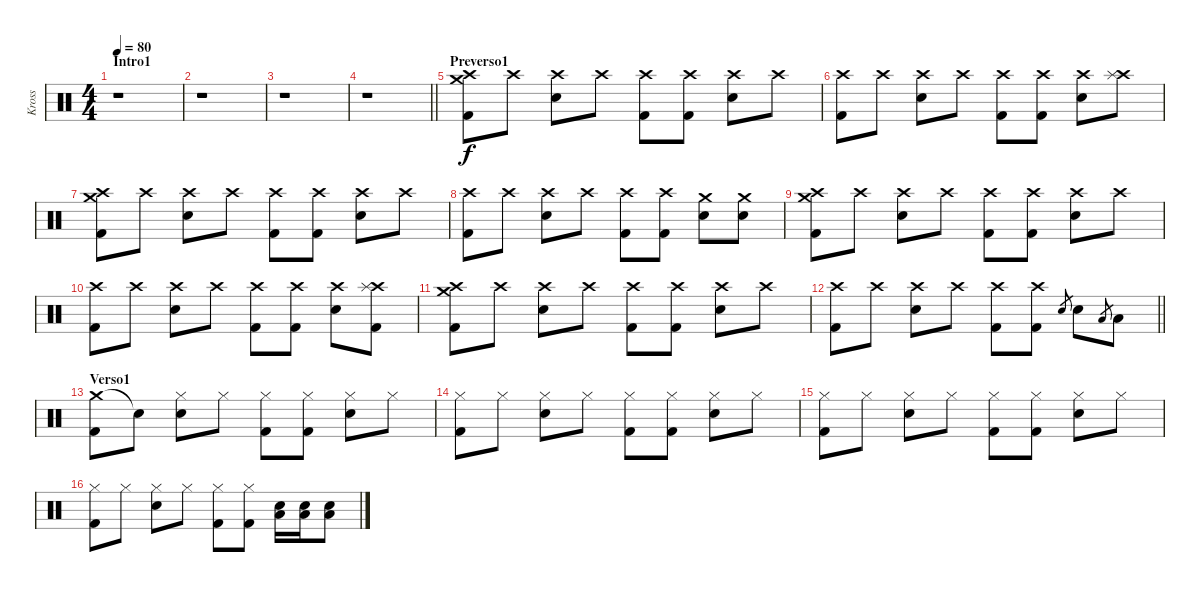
\track ("Kross" "Kross") {instrument percussion}
\staff {score}
\articulation defaults
\ts (4 4)
\section ("" "Intro1")
\tempo 80
\clef neutral
\ks c
r.1{dy f} |
r.1 |
r.1 |
\barLineRight lightlight
r.1 |
\section ("" "Preverso1")
("Crash high (hit)" "Crash medium (hit)" "Kick (hit) 2").8 "Crash high (hit)".8 ("Crash high (hit)" "Snare (hit) 2").8 "Crash high (hit)".8 ("Crash high (hit)" "Kick (hit) 2").8 ("Crash high (hit)" "Kick (hit) 2").8 ("Crash high (hit)" "Snare (hit) 2").8 "Crash high (hit)".8 |
("Crash high (hit)" "Kick (hit) 2").8 "Crash high (hit)".8 ("Crash high (hit)" "Snare (hit) 2").8 "Crash high (hit)".8 ("Crash high (hit)" "Kick (hit) 2").8 ("Crash high (hit)" "Kick (hit) 2").8 ("Crash high (hit)" "Snare (hit) 2").8 ("Crash high (hit)" "Splash (hit)").8 |
("Crash high (hit)" "Crash medium (hit)" "Kick (hit) 2").8 "Crash high (hit)".8 ("Crash high (hit)" "Snare (hit) 2").8 "Crash high (hit)".8 ("Crash high (hit)" "Kick (hit) 2").8 ("Crash high (hit)" "Kick (hit) 2").8 ("Crash high (hit)" "Snare (hit) 2").8 "Crash high (hit)".8 |
("Crash high (hit)" "Kick (hit) 2").8 "Crash high (hit)".8 ("Crash high (hit)" "Snare (hit) 2").8 "Crash high (hit)".8 ("Crash high (hit)" "Kick (hit) 2").8 ("Crash high (hit)" "Kick (hit) 2").8 ("Crash medium (hit)" "Snare (hit) 2").8 ("Crash medium (hit)" "Snare (hit) 2").8 |
("Crash high (hit)" "Crash medium (hit)" "Kick (hit) 2").8 "Crash high (hit)".8 ("Crash high (hit)" "Snare (hit) 2").8 "Crash high (hit)".8 ("Crash high (hit)" "Kick (hit) 2").8 ("Crash high (hit)" "Kick (hit) 2").8 ("Crash high (hit)" "Snare (hit) 2").8 "Crash high (hit)".8 |
("Crash high (hit)" "Kick (hit) 2").8 "Crash high (hit)".8 ("Crash high (hit)" "Snare (hit) 2").8 "Crash high (hit)".8 ("Crash high (hit)" "Kick (hit) 2").8 ("Crash high (hit)" "Kick (hit) 2").8 ("Crash high (hit)" "Snare (hit) 2").8 ("Crash high (hit)" "Splash (hit)" "Kick (hit) 2").8 |
("Crash high (hit)" "Crash medium (hit)" "Kick (hit) 2").8 "Crash high (hit)".8 ("Crash high (hit)" "Snare (hit) 2").8 "Crash high (hit)".8 ("Crash high (hit)" "Kick (hit) 2").8 ("Crash high (hit)" "Kick (hit) 2").8 ("Crash high (hit)" "Snare (hit) 2").8 "Crash high (hit)".8 |
\barLineRight lightlight
("Crash high (hit)" "Kick (hit) 2").8 "Crash high (hit)".8 ("Crash high (hit)" "Snare (hit) 2").8 "Crash high (hit)".8 ("Crash high (hit)" "Kick (hit) 2").8 ("Crash high (hit)" "Kick (hit) 2").8 "Snare (hit) 2".8{gr} "Snare (hit) 2".8 "Low Tom (hit)".8{gr} "Low Tom (hit)".8 |
\section ("" "Verso1")
("Crash medium (hit)" "Kick (hit) 2").8 "Snare (hit)"{t}.8 ("Hi-Hat (closed)" "Snare (hit) 2").8 "Hi-Hat (closed)".8 ("Hi-Hat (closed)" "Kick (hit) 2").8 ("Hi-Hat (closed)" "Kick (hit) 2").8 ("Hi-Hat (closed)" "Snare (hit) 2").8 "Hi-Hat (closed)".8 |
("Hi-Hat (closed)" "Kick (hit) 2").8 "Hi-Hat (closed)".8 ("Hi-Hat (closed)" "Snare (hit) 2").8 "Hi-Hat (closed)".8 ("Hi-Hat (closed)" "Kick (hit) 2").8 ("Hi-Hat (closed)" "Kick (hit) 2").8 ("Hi-Hat (closed)" "Snare (hit) 2").8 "Hi-Hat (closed)".8 |
("Hi-Hat (closed)" "Kick (hit) 2").8 "Hi-Hat (closed)".8 ("Hi-Hat (closed)" "Snare (hit) 2").8 "Hi-Hat (closed)".8 ("Hi-Hat (closed)" "Kick (hit) 2").8 ("Hi-Hat (closed)" "Kick (hit) 2").8 ("Hi-Hat (closed)" "Snare (hit) 2").8 "Hi-Hat (closed)".8 |
("Hi-Hat (closed)" "Kick (hit) 2").8 "Hi-Hat (closed)".8 ("Hi-Hat (closed)" "Snare (hit) 2").8 "Hi-Hat (closed)".8 ("Hi-Hat (closed)" "Kick (hit) 2").8 ("Hi-Hat (closed)" "Kick (hit) 2").8 ("Low Tom (hit)" "Snare (hit) 2").16 ("Low Tom (hit)" "Snare (hit) 2").16 ("Low Tom (hit)" "Snare (hit) 2").8
